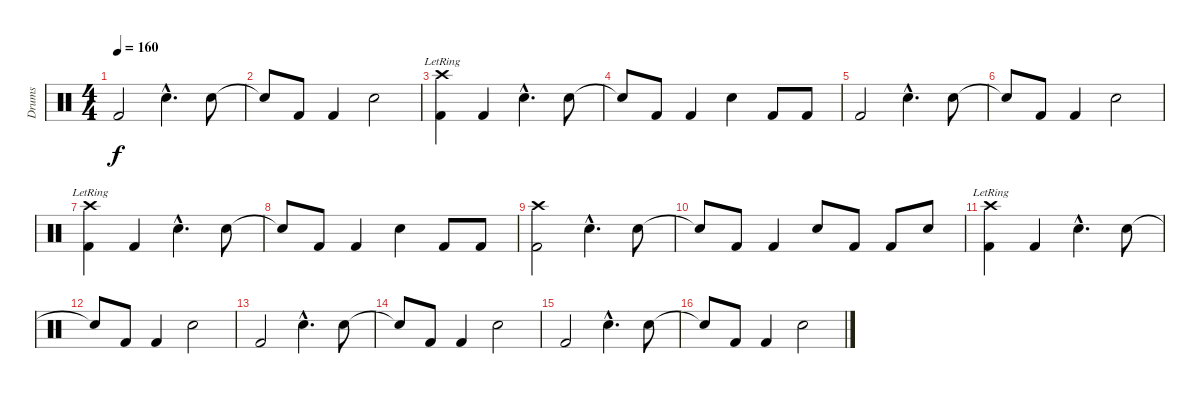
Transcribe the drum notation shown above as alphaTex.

\track ("Drums" "Drums") {instrument percussion}
\staff {score}
\articulation defaults
\ts (4 4)
\tempo 160
\clef neutral
\ks c "Kick (hit) 2".2{dy f} "Snare (hit) 2"{hac}.4{d} "Snare (hit) 2".8
|
"Snare (hit) 2"{t}.8 "Kick (hit) 2".8 "Kick (hit) 2".4 "Snare (hit) 2".2 |
("Crash high (hit)"{lr} "Kick (hit) 2").4 "Kick (hit) 2".4 "Snare (hit) 2"{hac}.4{d} "Snare (hit) 2".8 |
"Snare (hit) 2"{t}.8 "Kick (hit) 2".8 "Kick (hit) 2".4 "Snare (hit) 2".4 "Kick (hit) 2".8 "Kick (hit) 2".8 |
"Kick (hit) 2".2 "Snare (hit) 2"{hac}.4{d} "Snare (hit) 2".8 |
"Snare (hit) 2"{t}.8 "Kick (hit) 2".8 "Kick (hit) 2".4 "Snare (hit) 2".2 |
("Crash high (hit)"{lr} "Kick (hit) 2").4 "Kick (hit) 2".4 "Snare (hit) 2"{hac}.4{d} "Snare (hit) 2".8 |
"Snare (hit) 2"{t}.8 "Kick (hit) 2".8 "Kick (hit) 2".4 "Snare (hit) 2".4 "Kick (hit) 2".8 "Kick (hit) 2".8 |
("Crash high (hit)" "Kick (hit) 2").2 "Snare (hit) 2"{hac}.4{d} "Snare (hit) 2".8 |
"Snare (hit) 2"{t}.8 "Kick (hit) 2".8 "Kick (hit) 2".4 "Snare (hit) 2".8 "Kick (hit) 2".8 "Kick (hit) 2".8 "Snare (hit) 2".8 |
("Crash high (hit)"{lr} "Kick (hit) 2").4 "Kick (hit) 2".4 "Snare (hit) 2"{hac}.4{d} "Snare (hit) 2".8 |
"Snare (hit) 2"{t}.8 "Kick (hit) 2".8 "Kick (hit) 2".4 "Snare (hit) 2".2 |
"Kick (hit) 2".2 "Snare (hit) 2"{hac}.4{d} "Snare (hit) 2".8 |
"Snare (hit) 2"{t}.8 "Kick (hit) 2".8 "Kick (hit) 2".4 "Snare (hit) 2".2 |
"Kick (hit) 2".2 "Snare (hit) 2"{hac}.4{d} "Snare (hit) 2".8 |
"Snare (hit) 2"{t}.8 "Kick (hit) 2".8 "Kick (hit) 2".4 "Snare (hit) 2".2
